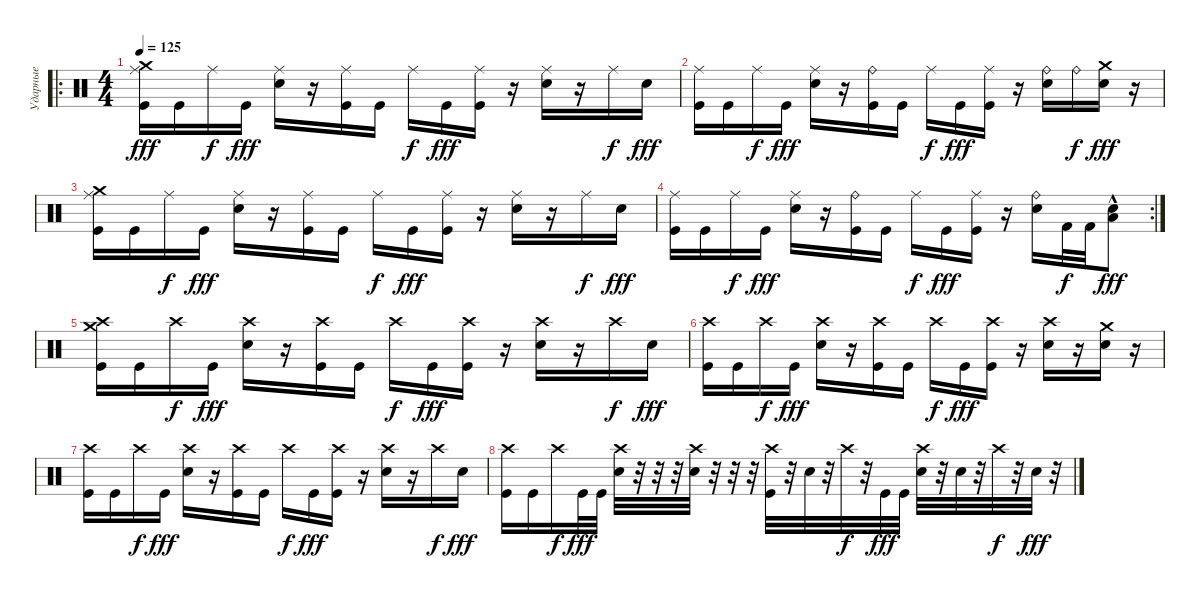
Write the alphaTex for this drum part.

\track ("Ударные" "Ударные") {instrument percussion}
\staff {score}
\articulation defaults
\ro
\ts (4 4)
\tempo 125
\clef neutral
\ks c
("Ride (middle)" "Crash medium (hit)" "Kick (hit)").16{dy fff} "Kick (hit)".16 "Ride (middle)".16{dy f} "Kick (hit)".16{dy fff} ("Ride (middle)" "Electric Snare (hit)").16 r.16 ("Ride (middle)" "Kick (hit)").16 "Kick (hit)".16 "Ride (middle)".16{dy f} "Kick (hit)".16{dy fff} ("Ride (middle)" "Kick (hit)").16 r.16 ("Ride (middle)" "Electric Snare (hit)").16 r.16 "Ride (middle)".16{dy f} "Electric Snare (hit)".16{dy fff} |
("Ride (middle)" "Kick (hit)").16 "Kick (hit)".16 "Ride (middle)".16{dy f} "Kick (hit)".16{dy fff} ("Ride (middle)" "Electric Snare (hit)").16 r.16 ("Ride (bell)" "Kick (hit)").16 "Kick (hit)".16 "Ride (middle)".16{dy f} "Kick (hit)".16{dy fff} ("Ride (middle)" "Kick (hit)").16 r.16 ("Ride (bell)" "Electric Snare (hit)").16 "Ride (bell)".16{dy f} ("Crash medium (hit)" "Electric Snare (hit)").16{dy fff} r.16 |
("Ride (middle)" "Crash medium (hit)" "Kick (hit)").16 "Kick (hit)".16 "Ride (middle)".16{dy f} "Kick (hit)".16{dy fff} ("Ride (middle)" "Electric Snare (hit)").16 r.16 ("Ride (middle)" "Kick (hit)").16 "Kick (hit)".16 "Ride (middle)".16{dy f} "Kick (hit)".16{dy fff} ("Ride (middle)" "Kick (hit)").16 r.16 ("Ride (middle)" "Electric Snare (hit)").16 r.16 "Ride (middle)".16{dy f} "Electric Snare (hit)".16{dy fff} |
\rc 2
("Ride (middle)" "Kick (hit)").16 "Kick (hit)".16 "Ride (middle)".16{dy f} "Kick (hit)".16{dy fff} ("Ride (middle)" "Electric Snare (hit)").16 r.16 ("Ride (bell)" "Kick (hit)").16 "Kick (hit)".16 "Ride (middle)".16{dy f} "Kick (hit)".16{dy fff} ("Ride (middle)" "Kick (hit)").16 r.16 ("Ride (bell)" "Electric Snare (hit)").16 "Kick (hit) 2".32{dy f} "Kick (hit) 2".32 ("Electric Snare (hit)"{hac} "Low Floor Tom (hit)"{hac}).8{dy fff} |
("Crash high (hit)" "Crash medium (hit)" "Kick (hit)").16 "Kick (hit)".16 "Crash high (hit)".16{dy f} "Kick (hit)".16{dy fff} ("Crash high (hit)" "Electric Snare (hit)").16 r.16 ("Crash high (hit)" "Kick (hit)").16 "Kick (hit)".16 "Crash high (hit)".16{dy f} "Kick (hit)".16{dy fff} ("Crash high (hit)" "Kick (hit)").16 r.16 ("Crash high (hit)" "Electric Snare (hit)").16 r.16 "Crash high (hit)".16{dy f} "Electric Snare (hit)".16{dy fff} |
("Crash high (hit)" "Kick (hit)").16 "Kick (hit)".16 "Crash high (hit)".16{dy f} "Kick (hit)".16{dy fff} ("Crash high (hit)" "Electric Snare (hit)").16 r.16 ("Crash high (hit)" "Kick (hit)").16 "Kick (hit)".16 "Crash high (hit)".16{dy f} "Kick (hit)".16{dy fff} ("Crash high (hit)" "Kick (hit)").16 r.16 ("Crash high (hit)" "Electric Snare (hit)").16 r.16 ("Crash medium (hit)" "Electric Snare (hit)").16 r.16 |
("Crash high (hit)" "Kick (hit)").16 "Kick (hit)".16 "Crash high (hit)".16{dy f} "Kick (hit)".16{dy fff} ("Crash high (hit)" "Electric Snare (hit)").16 r.16 ("Crash high (hit)" "Kick (hit)").16 "Kick (hit)".16 "Crash high (hit)".16{dy f} "Kick (hit)".16{dy fff} ("Crash high (hit)" "Kick (hit)").16 r.16 ("Crash high (hit)" "Electric Snare (hit)").16 r.16 "Crash high (hit)".16{dy f} "Electric Snare (hit)".16{dy fff} |
("Crash high (hit)" "Kick (hit)").16 "Kick (hit)".16 "Crash high (hit)".16{dy f} "Kick (hit)".32{dy fff} "Kick (hit)".32 ("Crash high (hit)" "Electric Snare (hit)").32 r.32 r.32 r.32 ("Crash high (hit)" "Electric Snare (hit)").32 r.32 r.32 r.32 ("Crash high (hit)" "Kick (hit)").32 r.32 "Electric Snare (hit)".32 r.32 "Crash high (hit)".32{dy f} r.32 "Kick (hit)".32{dy fff} "Kick (hit)".32 ("Crash high (hit)" "Electric Snare (hit)").32 r.32 "Electric Snare (hit)".32 r.32 "Crash high (hit)".32{dy f} r.32 "Electric Snare (hit)".32{dy fff} r.32
